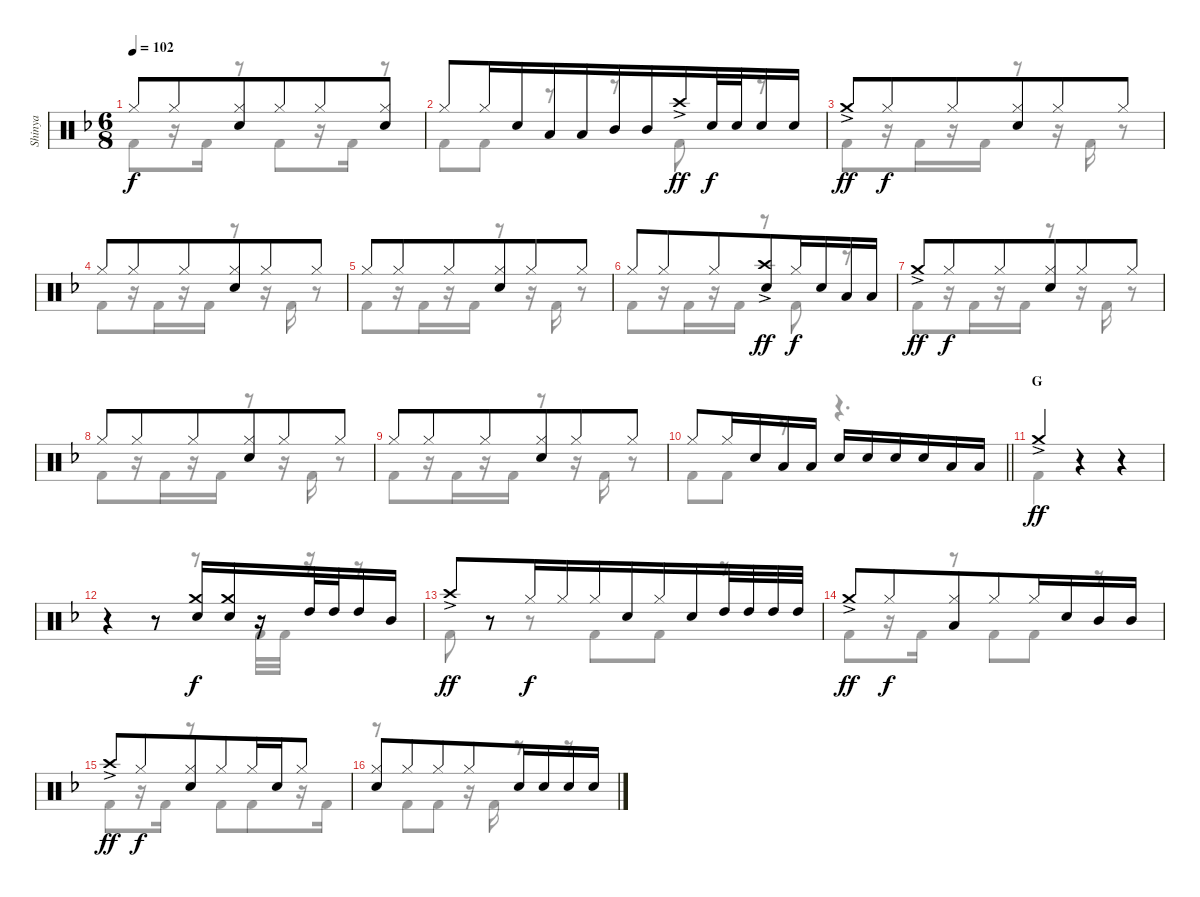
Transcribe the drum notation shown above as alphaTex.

\track ("Shinya" "Shinya") {mute instrument percussion}
\staff {score}
\articulation defaults
\voice
\ts (6 8)
\tempo 102
\clef neutral
\ks f "Hi-Hat (closed)".8{dy f} "Hi-Hat (closed)".8
("Hi-Hat (closed)" "Snare (hit) 2").8{beam merge} "Hi-Hat (closed)".8{beam merge} "Hi-Hat (closed)".8 ("Hi-Hat (closed)" "Snare (hit) 2").8 |
"Hi-Hat (closed)".8 "Hi-Hat (closed)".16 "Snare (hit) 2".16 "Low Tom (hit)".16 "Low Tom (hit)".16{beam merge} "Mid Tom (hit)".16{beam merge} "Mid Tom (hit)".16 "Crash high (hit)"{ac}.16{dy ff} "Snare (hit) 2".32{dy f beam merge} "Snare (hit) 2".32{beam merge} "Snare (hit) 2".16 "Snare (hit) 2".16 |
"Crash medium (hit)"{ac}.8{dy ff} "Hi-Hat (closed)".8{dy f} "Hi-Hat (closed)".8{beam merge} ("Hi-Hat (closed)" "Snare (hit) 2").8{beam merge} "Hi-Hat (closed)".8 "Hi-Hat (closed)".8 |
"Hi-Hat (closed)".8 "Hi-Hat (closed)".8 "Hi-Hat (closed)".8{beam merge} ("Hi-Hat (closed)" "Snare (hit) 2").8{beam merge} "Hi-Hat (closed)".8 "Hi-Hat (closed)".8 |
"Hi-Hat (closed)".8 "Hi-Hat (closed)".8 "Hi-Hat (closed)".8{beam merge} ("Hi-Hat (closed)" "Snare (hit) 2").8{beam merge} "Hi-Hat (closed)".8 "Hi-Hat (closed)".8 |
"Hi-Hat (closed)".8 "Hi-Hat (closed)".8 "Hi-Hat (closed)".8{beam merge} ("Crash high (hit)"{ac} "Snare (hit) 2").8{dy ff beam merge} "Hi-Hat (closed)".16{dy f} "Snare (hit) 2".16 "Low Tom (hit)".16 "Low Tom (hit)".16 |
"Crash medium (hit)"{ac}.8{dy ff} "Hi-Hat (closed)".8{dy f} "Hi-Hat (closed)".8{beam merge} ("Hi-Hat (closed)" "Snare (hit) 2").8{beam merge} "Hi-Hat (closed)".8 "Hi-Hat (closed)".8 |
"Hi-Hat (closed)".8 "Hi-Hat (closed)".8 "Hi-Hat (closed)".8{beam merge} ("Hi-Hat (closed)" "Snare (hit) 2").8{beam merge} "Hi-Hat (closed)".8 "Hi-Hat (closed)".8 |
"Hi-Hat (closed)".8 "Hi-Hat (closed)".8 "Hi-Hat (closed)".8{beam merge} ("Hi-Hat (closed)" "Snare (hit) 2").8{beam merge} "Hi-Hat (closed)".8 "Hi-Hat (closed)".8 |
\barLineRight lightlight "Hi-Hat (closed)".8 "Hi-Hat (closed)".16 "Snare (hit) 2".16{beam merge} "Low Tom (hit)".16{beam merge} "Low Tom (hit)".16 "Snare (hit) 2".16 "Snare (hit) 2".16 "Snare (hit) 2".16{beam merge} "Snare (hit) 2".16{beam merge} "Low Tom (hit)".16 "Low Tom (hit)".16
|
\section ("" "G")
"Crash medium (hit)"{ac}.4{dy ff} r.4 r.4 |
r.4 r.8{beam merge} ("Crash medium (hit)" "Snare (hit) 2").16{dy f beam merge} ("Crash medium (hit)" "Snare (hit) 2").16 r.16 "High Tom (hit)".32{beam merge} "High Tom (hit)".32 "High Tom (hit)".16{beam merge} "Mid Tom (hit)".16 |
"Crash high (hit)"{ac}.8{dy ff} r.8{beam merge} "Hi-Hat (closed)".16{dy f} "Hi-Hat (closed)".16{beam merge} "Hi-Hat (closed)".16{beam merge} "Snare (hit) 2".16 "Hi-Hat (closed)".16 "Snare (hit) 2".16{beam merge} "High Tom (hit)".32 "High Tom (hit)".32 "High Tom (hit)".32{beam merge} "High Tom (hit)".32 |
"Crash medium (hit)"{ac}.8{dy ff} "Hi-Hat (closed)".8{dy f} ("Hi-Hat (closed)" "Low Tom (hit)").8{beam merge} "Hi-Hat (closed)".8{beam merge} "Hi-Hat (closed)".16 "Snare (hit) 2".16 "Mid Tom (hit)".16{beam merge} "Mid Tom (hit)".16 |
"Crash high (hit)"{ac}.8{dy ff} "Hi-Hat (closed)".8{dy f} ("Hi-Hat (closed)" "Snare (hit) 2").8{beam merge} "Hi-Hat (closed)".8{beam merge} "Hi-Hat (closed)".16{beam merge} "Snare (hit) 2".16 "Hi-Hat (closed)".8 |
("Hi-Hat (closed)" "Snare (hit) 2").8 "Hi-Hat (closed)".8 "Hi-Hat (closed)".8{beam merge} "Hi-Hat (closed)".8{beam merge} "Snare (hit) 2".16 "Snare (hit) 2".16{beam merge} "Snare (hit) 2".16 "Snare (hit) 2".16
\voice
\clef neutral
\ottava regular
\simile none
\ks f "Kick (hit) 2".8{dy f}
r.16 "Kick (hit) 2".16 r.8 "Kick (hit) 2".8 r.16 "Kick (hit) 2".16 r.8 |
"Kick (hit) 2".8 "Kick (hit) 2".8 r.8 r.8 "Kick (hit) 2".8 r.8 |
"Kick (hit) 2".8 r.16 "Kick (hit) 2".16{beam merge} r.16 "Kick (hit) 2".16 r.8 r.16 "Kick (hit) 2".16 r.8 |
"Kick (hit) 2".8 r.16 "Kick (hit) 2".16{beam merge} r.16 "Kick (hit) 2".16 r.8 r.16 "Kick (hit) 2".16 r.8 |
"Kick (hit) 2".8 r.16 "Kick (hit) 2".16{beam merge} r.16 "Kick (hit) 2".16 r.8 r.16 "Kick (hit) 2".16 r.8 |
"Kick (hit) 2".8 r.16 "Kick (hit) 2".16{beam merge} r.16 "Kick (hit) 2".16 r.8 "Kick (hit) 2".8 r.8 |
"Kick (hit) 2".8 r.16 "Kick (hit) 2".16{beam merge} r.16 "Kick (hit) 2".16 r.8 r.16 "Kick (hit) 2".16 r.8 |
"Kick (hit) 2".8 r.16 "Kick (hit) 2".16{beam merge} r.16 "Kick (hit) 2".16 r.8 r.16 "Kick (hit) 2".16 r.8 |
"Kick (hit) 2".8 r.16 "Kick (hit) 2".16{beam merge} r.16 "Kick (hit) 2".16 r.8 r.16 "Kick (hit) 2".16 r.8 |
\barLineRight lightlight "Kick (hit) 2".8 "Kick (hit) 2".8
r.8 r.4{d} |
"Kick (hit) 2".4 r.4 r.4 |
r.4 r.8 r.8 "Kick (hit) 2".32 "Kick (hit) 2".32 r.16 r.8 |
"Kick (hit) 2".8 r.8 r.8 "Kick (hit) 2".8 "Kick (hit) 2".8 r.8 |
"Kick (hit) 2".8 r.16 "Kick (hit) 2".16 r.8{beam split} "Kick (hit) 2".8{beam merge} "Kick (hit) 2".8 r.8 |
"Kick (hit) 2".8 r.16 "Kick (hit) 2".16 r.8 "Kick (hit) 2".8 "Kick (hit) 2".8 r.16 "Kick (hit) 2".16 |
r.8 "Kick (hit) 2".8 "Kick (hit) 2".8 r.16 "Kick (hit) 2".16 r.8 r.8
